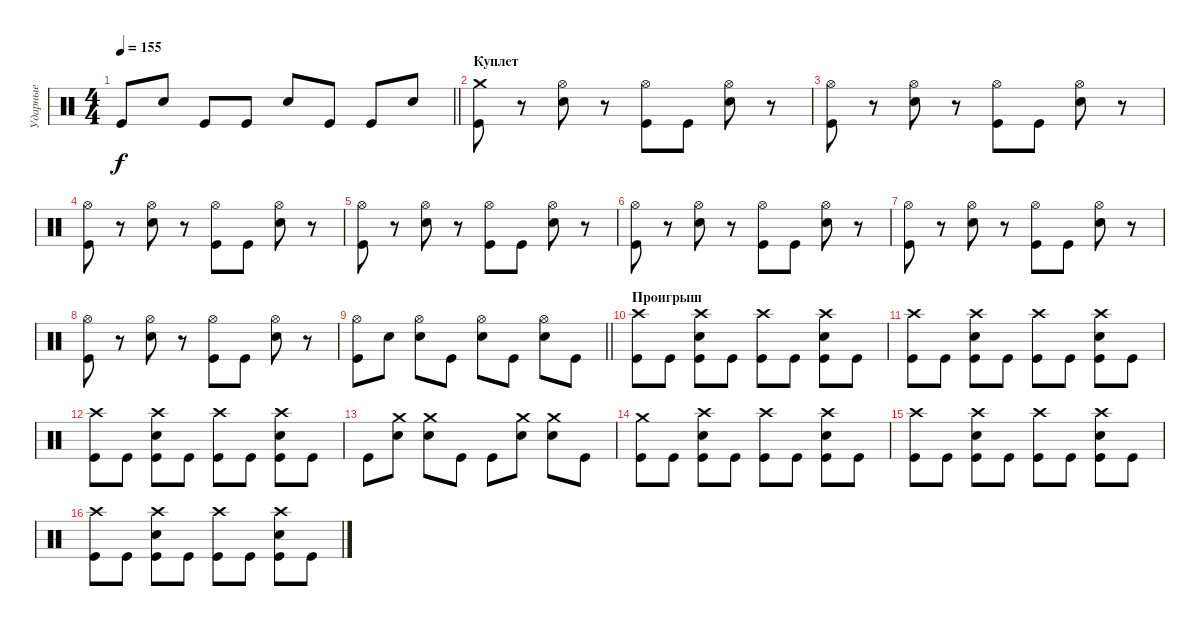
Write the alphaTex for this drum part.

\track ("Ударные" "Ударные") {instrument percussion}
\staff {score}
\articulation defaults
\ts (4 4)
\tempo 155
\clef neutral
\barLineRight lightlight
\ks c "Kick (hit)".8{dy f} "Electric Snare (hit)".8 "Kick (hit)".8 "Kick (hit)".8 "Electric Snare (hit)".8 "Kick (hit)".8 "Kick (hit)".8 "Electric Snare (hit)".8
|
\section ("" "Куплет")
("Crash medium (hit)" "Kick (hit)").8 r.8 ("Hi-Hat (open)" "Electric Snare (hit)").8 r.8 ("Hi-Hat (open)" "Kick (hit)").8 "Kick (hit)".8 ("Hi-Hat (open)" "Electric Snare (hit)").8 r.8 |
("Hi-Hat (open)" "Kick (hit)").8 r.8 ("Hi-Hat (open)" "Electric Snare (hit)").8 r.8 ("Hi-Hat (open)" "Kick (hit)").8 "Kick (hit)".8 ("Hi-Hat (open)" "Electric Snare (hit)").8 r.8 |
("Hi-Hat (open)" "Kick (hit)").8 r.8 ("Hi-Hat (open)" "Electric Snare (hit)").8 r.8 ("Hi-Hat (open)" "Kick (hit)").8 "Kick (hit)".8 ("Hi-Hat (open)" "Electric Snare (hit)").8 r.8 |
("Hi-Hat (open)" "Kick (hit)").8 r.8 ("Hi-Hat (open)" "Electric Snare (hit)").8 r.8 ("Hi-Hat (open)" "Kick (hit)").8 "Kick (hit)".8 ("Hi-Hat (open)" "Electric Snare (hit)").8 r.8 |
("Hi-Hat (open)" "Kick (hit)").8 r.8 ("Hi-Hat (open)" "Electric Snare (hit)").8 r.8 ("Hi-Hat (open)" "Kick (hit)").8 "Kick (hit)".8 ("Hi-Hat (open)" "Electric Snare (hit)").8 r.8 |
("Hi-Hat (open)" "Kick (hit)").8 r.8 ("Hi-Hat (open)" "Electric Snare (hit)").8 r.8 ("Hi-Hat (open)" "Kick (hit)").8 "Kick (hit)".8 ("Hi-Hat (open)" "Electric Snare (hit)").8 r.8 |
("Hi-Hat (open)" "Kick (hit)").8 r.8 ("Hi-Hat (open)" "Electric Snare (hit)").8 r.8 ("Hi-Hat (open)" "Kick (hit)").8 "Kick (hit)".8 ("Hi-Hat (open)" "Electric Snare (hit)").8 r.8 |
\barLineRight lightlight
("Hi-Hat (open)" "Kick (hit)").8 "Electric Snare (hit)".8 ("Hi-Hat (open)" "Electric Snare (hit)").8 "Kick (hit)".8 ("Hi-Hat (open)" "Electric Snare (hit)").8 "Kick (hit)".8 ("Hi-Hat (open)" "Electric Snare (hit)").8 "Kick (hit)".8 |
\section ("" "Проигрыш")
("Crash high (hit)" "Kick (hit)").8 "Kick (hit)".8 ("Crash high (hit)" "Kick (hit)" "Electric Snare (hit)").8 "Kick (hit)".8 ("Crash high (hit)" "Kick (hit)").8 "Kick (hit)".8 ("Crash high (hit)" "Kick (hit)" "Electric Snare (hit)").8 "Kick (hit)".8 |
("Crash high (hit)" "Kick (hit)").8 "Kick (hit)".8 ("Crash high (hit)" "Kick (hit)" "Electric Snare (hit)").8 "Kick (hit)".8 ("Crash high (hit)" "Kick (hit)").8 "Kick (hit)".8 ("Crash high (hit)" "Kick (hit)" "Electric Snare (hit)").8 "Kick (hit)".8 |
("Crash high (hit)" "Kick (hit)").8 "Kick (hit)".8 ("Crash high (hit)" "Kick (hit)" "Electric Snare (hit)").8 "Kick (hit)".8 ("Crash high (hit)" "Kick (hit)").8 "Kick (hit)".8 ("Crash high (hit)" "Kick (hit)" "Electric Snare (hit)").8 "Kick (hit)".8 |
"Kick (hit)".8 ("Crash medium (hit)" "Electric Snare (hit)").8 ("Crash medium (hit)" "Electric Snare (hit)").8 "Kick (hit)".8 "Kick (hit)".8 ("Crash medium (hit)" "Electric Snare (hit)").8 ("Crash medium (hit)" "Electric Snare (hit)").8 "Kick (hit)".8 |
("Crash medium (hit)" "Kick (hit)").8 "Kick (hit)".8 ("Crash high (hit)" "Kick (hit)" "Electric Snare (hit)").8 "Kick (hit)".8 ("Crash high (hit)" "Kick (hit)").8 "Kick (hit)".8 ("Crash high (hit)" "Kick (hit)" "Electric Snare (hit)").8 "Kick (hit)".8 |
("Crash high (hit)" "Kick (hit)").8 "Kick (hit)".8 ("Crash high (hit)" "Kick (hit)" "Electric Snare (hit)").8 "Kick (hit)".8 ("Crash high (hit)" "Kick (hit)").8 "Kick (hit)".8 ("Crash high (hit)" "Kick (hit)" "Electric Snare (hit)").8 "Kick (hit)".8 |
("Crash high (hit)" "Kick (hit)").8 "Kick (hit)".8 ("Crash high (hit)" "Kick (hit)" "Electric Snare (hit)").8 "Kick (hit)".8 ("Crash high (hit)" "Kick (hit)").8 "Kick (hit)".8 ("Crash high (hit)" "Kick (hit)" "Electric Snare (hit)").8 "Kick (hit)".8
